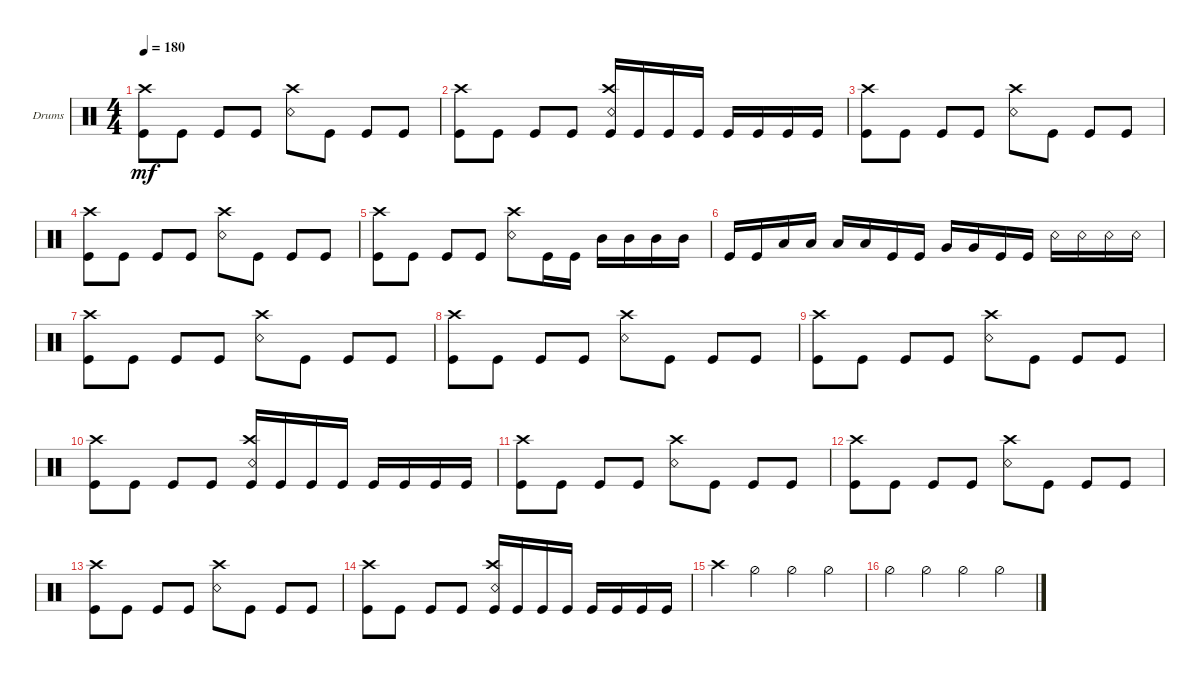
\defaultSystemsLayout 4
\bracketExtendMode groupsimilarinstruments
\firstSystemTrackNameOrientation horizontal
\otherSystemsTrackNameOrientation horizontal
\track ("Drumkit" "Drums") {instrument percussion}
\staff {score}
\articulation defaults
\ts (4 4)
\tempo 180
\clef neutral
\ks c
("Kick (hit)" "Crash high (hit)").8{dy mf} "Kick (hit)".8 "Kick (hit)".8 "Kick (hit)".8 ("Crash high (hit)" "Snare (rim shot)").8 "Kick (hit)".8 "Kick (hit)".8 "Kick (hit)".8 |
("Kick (hit)" "Crash high (hit)").8 "Kick (hit)".8 "Kick (hit)".8 "Kick (hit)".8 ("Kick (hit)" "Snare (rim shot)" "Crash high (hit)").16 "Kick (hit)".16 "Kick (hit)".16 "Kick (hit)".16 "Kick (hit)".16 "Kick (hit)".16 "Kick (hit)".16 "Kick (hit)".16 |
("Kick (hit)" "Crash high (hit)").8 "Kick (hit)".8 "Kick (hit)".8 "Kick (hit)".8 ("Crash high (hit)" "Snare (rim shot)").8 "Kick (hit)".8 "Kick (hit)".8 "Kick (hit)".8 |
("Kick (hit)" "Crash high (hit)").8 "Kick (hit)".8 "Kick (hit)".8 "Kick (hit)".8 ("Crash high (hit)" "Snare (rim shot)").8 "Kick (hit)".8 "Kick (hit)".8 "Kick (hit)".8 |
("Kick (hit)" "Crash high (hit)").8 "Kick (hit)".8 "Kick (hit)".8 "Kick (hit)".8 ("Crash high (hit)" "Snare (rim shot)").8 "Kick (hit)".16 "Kick (hit)".16 "Mid Tom (hit)".16 "Mid Tom (hit)".16 "Mid Tom (hit)".16 "Mid Tom (hit)".16 |
"Kick (hit)".16 "Kick (hit)".16 "Low Tom (hit)".16 "Low Tom (hit)".16 "Low Tom (hit)".16 "Low Tom (hit)".16 "Kick (hit)".16 "Kick (hit)".16 "Very Low Tom (hit)".16 "Very Low Tom (hit)".16 "Kick (hit)".16 "Kick (hit)".16 "Snare (rim shot)".16 "Snare (rim shot)".16 "Snare (rim shot)".16 "Snare (rim shot)".16 |
("Kick (hit)" "Crash high (hit)").8 "Kick (hit)".8 "Kick (hit)".8 "Kick (hit)".8 ("Crash high (hit)" "Snare (rim shot)").8 "Kick (hit)".8 "Kick (hit)".8 "Kick (hit)".8 |
("Kick (hit)" "Crash high (hit)").8 "Kick (hit)".8 "Kick (hit)".8 "Kick (hit)".8 ("Crash high (hit)" "Snare (rim shot)").8 "Kick (hit)".8 "Kick (hit)".8 "Kick (hit)".8 |
("Kick (hit)" "Crash high (hit)").8 "Kick (hit)".8 "Kick (hit)".8 "Kick (hit)".8 ("Crash high (hit)" "Snare (rim shot)").8 "Kick (hit)".8 "Kick (hit)".8 "Kick (hit)".8 |
("Kick (hit)" "Crash high (hit)").8 "Kick (hit)".8 "Kick (hit)".8 "Kick (hit)".8 ("Kick (hit)" "Snare (rim shot)" "Crash high (hit)").16 "Kick (hit)".16 "Kick (hit)".16 "Kick (hit)".16 "Kick (hit)".16 "Kick (hit)".16 "Kick (hit)".16 "Kick (hit)".16 |
("Kick (hit)" "Crash high (hit)").8 "Kick (hit)".8 "Kick (hit)".8 "Kick (hit)".8 ("Crash high (hit)" "Snare (rim shot)").8 "Kick (hit)".8 "Kick (hit)".8 "Kick (hit)".8 |
("Kick (hit)" "Crash high (hit)").8 "Kick (hit)".8 "Kick (hit)".8 "Kick (hit)".8 ("Crash high (hit)" "Snare (rim shot)").8 "Kick (hit)".8 "Kick (hit)".8 "Kick (hit)".8 |
("Kick (hit)" "Crash high (hit)").8 "Kick (hit)".8 "Kick (hit)".8 "Kick (hit)".8 ("Crash high (hit)" "Snare (rim shot)").8 "Kick (hit)".8 "Kick (hit)".8 "Kick (hit)".8 |
("Kick (hit)" "Crash high (hit)").8 "Kick (hit)".8 "Kick (hit)".8 "Kick (hit)".8 ("Kick (hit)" "Snare (rim shot)" "Crash high (hit)").16 "Kick (hit)".16 "Kick (hit)".16 "Kick (hit)".16 "Kick (hit)".16 "Kick (hit)".16 "Kick (hit)".16 "Kick (hit)".16 |
"Crash high (hit)".4 "Hi-Hat (half)".4 "Hi-Hat (half)".4 "Hi-Hat (half)".4 |
"Hi-Hat (half)".4 "Hi-Hat (half)".4 "Hi-Hat (half)".4 "Hi-Hat (half)".4
